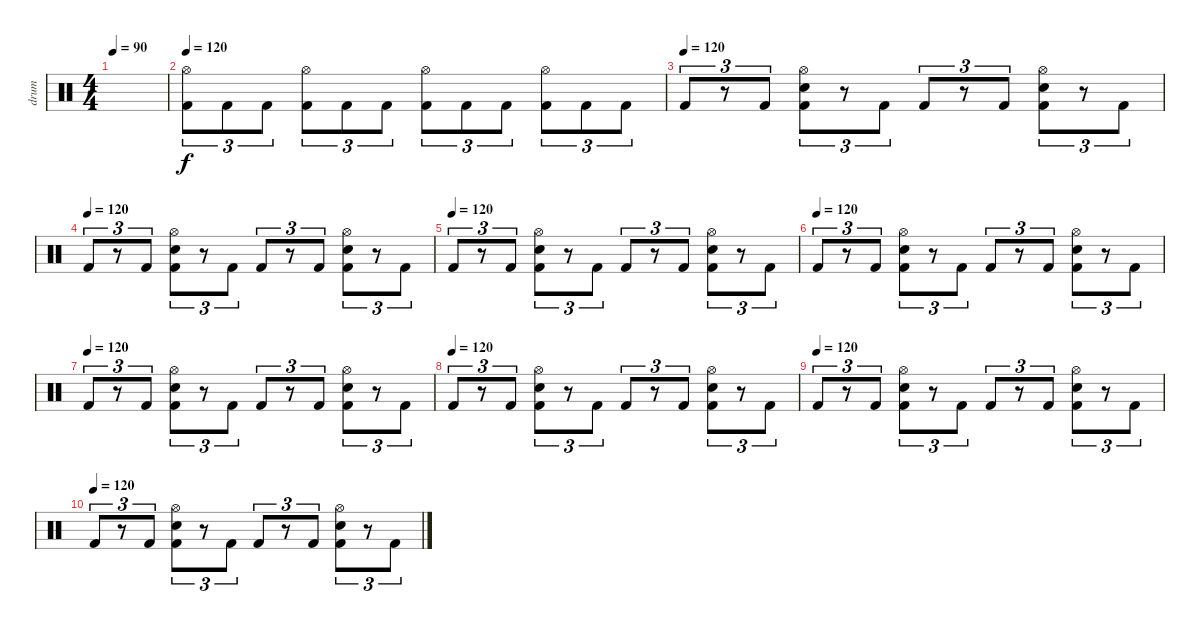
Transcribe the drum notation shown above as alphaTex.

\track ("drum" "drum") {instrument percussion}
\staff {score}
\articulation defaults
\ts (4 4)
\tempo 90
\clef neutral
\ks c
|
\tempo 120
("Hi-Hat (open)" "Kick (hit) 2").8{tu (3 2) volume 4} "Kick (hit) 2".8{tu (3 2)} "Kick (hit) 2".8{tu (3 2)} ("Hi-Hat (open)" "Kick (hit) 2").8{tu (3 2) volume 7} "Kick (hit) 2".8{tu (3 2)} "Kick (hit) 2".8{tu (3 2)} ("Hi-Hat (open)" "Kick (hit) 2").8{tu (3 2) volume 10} "Kick (hit) 2".8{tu (3 2)} "Kick (hit) 2".8{tu (3 2)} ("Hi-Hat (open)" "Kick (hit) 2").8{tu (3 2) volume 13} "Kick (hit) 2".8{tu (3 2)} "Kick (hit) 2".8{tu (3 2)} |
\tempo (120)
"Kick (hit) 2".8{tu (3 2)} r.8{tu (3 2)} "Kick (hit) 2".8{tu (3 2)} ("Snare (hit) 2" "Hi-Hat (open)" "Kick (hit) 2").8{tu (3 2)} r.8{tu (3 2)} "Kick (hit) 2".8{tu (3 2)} "Kick (hit) 2".8{tu (3 2)} r.8{tu (3 2)} "Kick (hit) 2".8{tu (3 2)} ("Snare (hit) 2" "Hi-Hat (open)" "Kick (hit) 2").8{tu (3 2)} r.8{tu (3 2)} "Kick (hit) 2".8{tu (3 2)} |
\tempo (120)
"Kick (hit) 2".8{tu (3 2)} r.8{tu (3 2)} "Kick (hit) 2".8{tu (3 2)} ("Snare (hit) 2" "Hi-Hat (open)" "Kick (hit) 2").8{tu (3 2)} r.8{tu (3 2)} "Kick (hit) 2".8{tu (3 2)} "Kick (hit) 2".8{tu (3 2)} r.8{tu (3 2)} "Kick (hit) 2".8{tu (3 2)} ("Snare (hit) 2" "Hi-Hat (open)" "Kick (hit) 2").8{tu (3 2)} r.8{tu (3 2)} "Kick (hit) 2".8{tu (3 2)} |
\tempo (120)
"Kick (hit) 2".8{tu (3 2)} r.8{tu (3 2)} "Kick (hit) 2".8{tu (3 2)} ("Snare (hit) 2" "Hi-Hat (open)" "Kick (hit) 2").8{tu (3 2)} r.8{tu (3 2)} "Kick (hit) 2".8{tu (3 2)} "Kick (hit) 2".8{tu (3 2)} r.8{tu (3 2)} "Kick (hit) 2".8{tu (3 2)} ("Snare (hit) 2" "Hi-Hat (open)" "Kick (hit) 2").8{tu (3 2)} r.8{tu (3 2)} "Kick (hit) 2".8{tu (3 2)} |
\tempo (120)
"Kick (hit) 2".8{tu (3 2)} r.8{tu (3 2)} "Kick (hit) 2".8{tu (3 2)} ("Snare (hit) 2" "Hi-Hat (open)" "Kick (hit) 2").8{tu (3 2)} r.8{tu (3 2)} "Kick (hit) 2".8{tu (3 2)} "Kick (hit) 2".8{tu (3 2)} r.8{tu (3 2)} "Kick (hit) 2".8{tu (3 2)} ("Snare (hit) 2" "Hi-Hat (open)" "Kick (hit) 2").8{tu (3 2)} r.8{tu (3 2)} "Kick (hit) 2".8{tu (3 2)} |
\tempo (120)
"Kick (hit) 2".8{tu (3 2)} r.8{tu (3 2)} "Kick (hit) 2".8{tu (3 2)} ("Snare (hit) 2" "Hi-Hat (open)" "Kick (hit) 2").8{tu (3 2)} r.8{tu (3 2)} "Kick (hit) 2".8{tu (3 2)} "Kick (hit) 2".8{tu (3 2)} r.8{tu (3 2)} "Kick (hit) 2".8{tu (3 2)} ("Snare (hit) 2" "Hi-Hat (open)" "Kick (hit) 2").8{tu (3 2)} r.8{tu (3 2)} "Kick (hit) 2".8{tu (3 2)} |
\tempo (120)
"Kick (hit) 2".8{tu (3 2)} r.8{tu (3 2)} "Kick (hit) 2".8{tu (3 2)} ("Snare (hit) 2" "Hi-Hat (open)" "Kick (hit) 2").8{tu (3 2)} r.8{tu (3 2)} "Kick (hit) 2".8{tu (3 2)} "Kick (hit) 2".8{tu (3 2)} r.8{tu (3 2)} "Kick (hit) 2".8{tu (3 2)} ("Snare (hit) 2" "Hi-Hat (open)" "Kick (hit) 2").8{tu (3 2)} r.8{tu (3 2)} "Kick (hit) 2".8{tu (3 2)} |
\tempo (120)
"Kick (hit) 2".8{tu (3 2)} r.8{tu (3 2)} "Kick (hit) 2".8{tu (3 2)} ("Snare (hit) 2" "Hi-Hat (open)" "Kick (hit) 2").8{tu (3 2)} r.8{tu (3 2)} "Kick (hit) 2".8{tu (3 2)} "Kick (hit) 2".8{tu (3 2)} r.8{tu (3 2)} "Kick (hit) 2".8{tu (3 2)} ("Snare (hit) 2" "Hi-Hat (open)" "Kick (hit) 2").8{tu (3 2)} r.8{tu (3 2)} "Kick (hit) 2".8{tu (3 2)} |
\tempo (120)
"Kick (hit) 2".8{tu (3 2)} r.8{tu (3 2)} "Kick (hit) 2".8{tu (3 2)} ("Snare (hit) 2" "Hi-Hat (open)" "Kick (hit) 2").8{tu (3 2)} r.8{tu (3 2)} "Kick (hit) 2".8{tu (3 2)} "Kick (hit) 2".8{tu (3 2)} r.8{tu (3 2)} "Kick (hit) 2".8{tu (3 2)} ("Snare (hit) 2" "Hi-Hat (open)" "Kick (hit) 2").8{tu (3 2)} r.8{tu (3 2)} "Kick (hit) 2".8{tu (3 2)}
